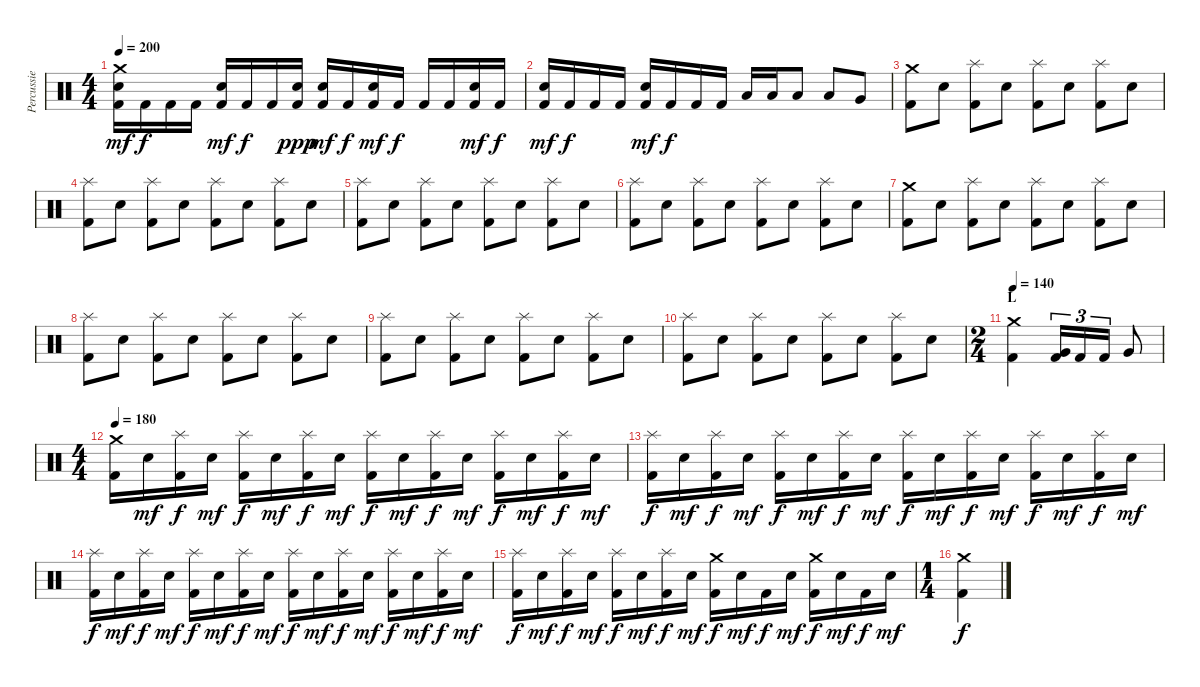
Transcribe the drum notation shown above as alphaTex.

\track ("Percussie" "Percussie") {instrument percussion}
\staff {score}
\articulation defaults
\ts (4 4)
\tempo 200
\clef neutral
\ks c
("Crash medium (hit)" "Electric Snare (hit)" "Kick (hit) 2").16{dy mf} "Kick (hit) 2".16{dy f} "Kick (hit) 2".16 "Kick (hit) 2".16 ("Electric Snare (hit)" "Kick (hit) 2").16{dy mf} "Kick (hit) 2".16{dy f} "Kick (hit) 2".16 ("Electric Snare (hit)" "Kick (hit) 2").16{dy ppp} ("Electric Snare (hit)" "Kick (hit) 2").16{dy mf} "Kick (hit) 2".16{dy f} ("Electric Snare (hit)" "Kick (hit) 2").16{dy mf} "Kick (hit) 2".16{dy f} "Kick (hit) 2".16 "Kick (hit) 2".16 ("Electric Snare (hit)" "Kick (hit) 2").16{dy mf} "Kick (hit) 2".16{dy f} |
("Electric Snare (hit)" "Kick (hit) 2").16{dy mf} "Kick (hit) 2".16{dy f} "Kick (hit) 2".16 "Kick (hit) 2".16 ("Electric Snare (hit)" "Kick (hit) 2").16{dy mf} "Kick (hit) 2".16{dy f} "Kick (hit) 2".16 "Kick (hit) 2".16 "Low Tom (hit)".16 "Low Tom (hit)".16 "Low Tom (hit)".8 "Low Tom (hit)".8 "Very Low Tom (hit)".8 |
("Crash medium (hit)" "Kick (hit) 2").8 "Electric Snare (hit)".8 ("Splash (hit)" "Kick (hit) 2").8 "Electric Snare (hit)".8 ("Splash (hit)" "Kick (hit) 2").8 "Electric Snare (hit)".8 ("Splash (hit)" "Kick (hit) 2").8 "Electric Snare (hit)".8 |
("Splash (hit)" "Kick (hit) 2").8 "Electric Snare (hit)".8 ("Splash (hit)" "Kick (hit) 2").8 "Electric Snare (hit)".8 ("Splash (hit)" "Kick (hit) 2").8 "Electric Snare (hit)".8 ("Splash (hit)" "Kick (hit) 2").8 "Electric Snare (hit)".8 |
("Splash (hit)" "Kick (hit) 2").8 "Electric Snare (hit)".8 ("Splash (hit)" "Kick (hit) 2").8 "Electric Snare (hit)".8 ("Splash (hit)" "Kick (hit) 2").8 "Electric Snare (hit)".8 ("Splash (hit)" "Kick (hit) 2").8 "Electric Snare (hit)".8 |
("Splash (hit)" "Kick (hit) 2").8 "Electric Snare (hit)".8 ("Splash (hit)" "Kick (hit) 2").8 "Electric Snare (hit)".8 ("Splash (hit)" "Kick (hit) 2").8 "Electric Snare (hit)".8 ("Splash (hit)" "Kick (hit) 2").8 "Electric Snare (hit)".8 |
("Crash medium (hit)" "Kick (hit) 2").8 "Electric Snare (hit)".8 ("Splash (hit)" "Kick (hit) 2").8 "Electric Snare (hit)".8 ("Splash (hit)" "Kick (hit) 2").8 "Electric Snare (hit)".8 ("Splash (hit)" "Kick (hit) 2").8 "Electric Snare (hit)".8 |
("Splash (hit)" "Kick (hit) 2").8 "Electric Snare (hit)".8 ("Splash (hit)" "Kick (hit) 2").8 "Electric Snare (hit)".8 ("Splash (hit)" "Kick (hit) 2").8 "Electric Snare (hit)".8 ("Splash (hit)" "Kick (hit) 2").8 "Electric Snare (hit)".8 |
("Splash (hit)" "Kick (hit) 2").8 "Electric Snare (hit)".8 ("Splash (hit)" "Kick (hit) 2").8 "Electric Snare (hit)".8 ("Splash (hit)" "Kick (hit) 2").8 "Electric Snare (hit)".8 ("Splash (hit)" "Kick (hit) 2").8 "Electric Snare (hit)".8 |
("Splash (hit)" "Kick (hit) 2").8 "Electric Snare (hit)".8 ("Splash (hit)" "Kick (hit) 2").8 "Electric Snare (hit)".8 ("Splash (hit)" "Kick (hit) 2").8 "Electric Snare (hit)".8 ("Splash (hit)" "Kick (hit) 2").8 "Electric Snare (hit)".8 |
\ts (2 4)
\section ("" "L")
\tempo 140
("Crash medium (hit)" "Kick (hit) 2").4 ("Very Low Tom (hit)" "Kick (hit) 2").16{tu (3 2)} "Kick (hit) 2".16{tu (3 2)} "Kick (hit) 2".16{tu (3 2)} "Very Low Tom (hit)".8 |
\ts (4 4)
\tempo 180
("Crash medium (hit)" "Kick (hit) 2").16 "Electric Snare (hit)".16{dy mf} ("Splash (hit)" "Kick (hit) 2").16{dy f} "Electric Snare (hit)".16{dy mf} ("Splash (hit)" "Kick (hit) 2").16{dy f} "Electric Snare (hit)".16{dy mf} ("Splash (hit)" "Kick (hit) 2").16{dy f} "Electric Snare (hit)".16{dy mf} ("Splash (hit)" "Kick (hit) 2").16{dy f} "Electric Snare (hit)".16{dy mf} ("Splash (hit)" "Kick (hit) 2").16{dy f} "Electric Snare (hit)".16{dy mf} ("Splash (hit)" "Kick (hit) 2").16{dy f} "Electric Snare (hit)".16{dy mf} ("Splash (hit)" "Kick (hit) 2").16{dy f} "Electric Snare (hit)".16{dy mf} |
("Splash (hit)" "Kick (hit) 2").16{dy f} "Electric Snare (hit)".16{dy mf} ("Splash (hit)" "Kick (hit) 2").16{dy f} "Electric Snare (hit)".16{dy mf} ("Splash (hit)" "Kick (hit) 2").16{dy f} "Electric Snare (hit)".16{dy mf} ("Splash (hit)" "Kick (hit) 2").16{dy f} "Electric Snare (hit)".16{dy mf} ("Splash (hit)" "Kick (hit) 2").16{dy f} "Electric Snare (hit)".16{dy mf} ("Splash (hit)" "Kick (hit) 2").16{dy f} "Electric Snare (hit)".16{dy mf} ("Splash (hit)" "Kick (hit) 2").16{dy f} "Electric Snare (hit)".16{dy mf} ("Splash (hit)" "Kick (hit) 2").16{dy f} "Electric Snare (hit)".16{dy mf} |
("Splash (hit)" "Kick (hit) 2").16{dy f} "Electric Snare (hit)".16{dy mf} ("Splash (hit)" "Kick (hit) 2").16{dy f} "Electric Snare (hit)".16{dy mf} ("Splash (hit)" "Kick (hit) 2").16{dy f} "Electric Snare (hit)".16{dy mf} ("Splash (hit)" "Kick (hit) 2").16{dy f} "Electric Snare (hit)".16{dy mf} ("Splash (hit)" "Kick (hit) 2").16{dy f} "Electric Snare (hit)".16{dy mf} ("Splash (hit)" "Kick (hit) 2").16{dy f} "Electric Snare (hit)".16{dy mf} ("Splash (hit)" "Kick (hit) 2").16{dy f} "Electric Snare (hit)".16{dy mf} ("Splash (hit)" "Kick (hit) 2").16{dy f} "Electric Snare (hit)".16{dy mf} |
("Splash (hit)" "Kick (hit) 2").16{dy f} "Electric Snare (hit)".16{dy mf} ("Splash (hit)" "Kick (hit) 2").16{dy f} "Electric Snare (hit)".16{dy mf} ("Splash (hit)" "Kick (hit) 2").16{dy f} "Electric Snare (hit)".16{dy mf} ("Splash (hit)" "Kick (hit) 2").16{dy f} "Electric Snare (hit)".16{dy mf} ("Crash medium (hit)" "Kick (hit) 2").16{dy f} "Electric Snare (hit)".16{dy mf} "Kick (hit) 2".16{dy f} "Electric Snare (hit)".16{dy mf} ("Crash medium (hit)" "Kick (hit) 2").16{dy f} "Electric Snare (hit)".16{dy mf} "Kick (hit) 2".16{dy f} "Electric Snare (hit)".16{dy mf} |
\ts (1 4)
("Crash medium (hit)" "Kick (hit) 2").4{dy f}
